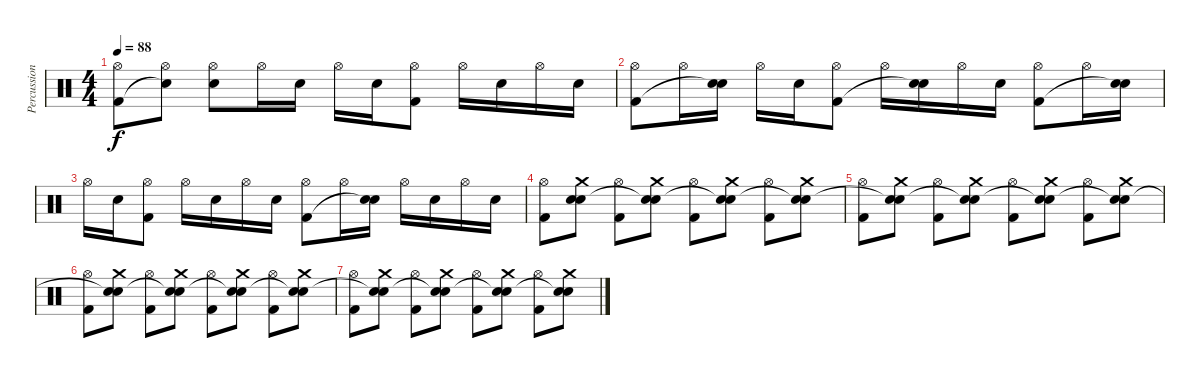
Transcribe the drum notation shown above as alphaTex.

\track ("Percussion" "Percussion") {instrument percussion}
\staff {score}
\articulation defaults
\ts (4 4)
\tempo 88
\clef neutral
\ks c
("Hi-Hat (open)" "Kick (hit) 2").8{dy f} ("Hi-Hat (open)" "Snare (hit)"{t}).8 ("Hi-Hat (open)" "Snare (hit) 2").8 "Hi-Hat (open)".16 "Snare (hit) 2".16 "Hi-Hat (open)".16 "Snare (hit) 2".16 ("Hi-Hat (open)" "Kick (hit) 2").8 "Hi-Hat (open)".16 "Snare (hit) 2".16 "Hi-Hat (open)".16 "Snare (hit) 2".16 |
("Hi-Hat (open)" "Kick (hit) 2").8 "Hi-Hat (open)".16 ("Snare (hit) 2" "Snare (hit)"{t}).16 "Hi-Hat (open)".16 "Snare (hit) 2".16 ("Hi-Hat (open)" "Kick (hit) 2").8 "Hi-Hat (open)".16 ("Snare (hit) 2" "Snare (hit)"{t}).16 "Hi-Hat (open)".16 "Snare (hit) 2".16 ("Hi-Hat (open)" "Kick (hit) 2").8 "Hi-Hat (open)".16 ("Snare (hit) 2" "Snare (hit)"{t}).16 |
"Hi-Hat (open)".16 "Snare (hit) 2".16 ("Hi-Hat (open)" "Kick (hit) 2").8 "Hi-Hat (open)".16 "Snare (hit) 2".16 "Hi-Hat (open)".16 "Snare (hit) 2".16 ("Hi-Hat (open)" "Kick (hit) 2").8 "Hi-Hat (open)".16 ("Snare (hit) 2" "Snare (hit)"{t}).16 "Hi-Hat (open)".16 "Snare (hit) 2".16 "Hi-Hat (open)".16 "Snare (hit) 2".16 |
("Hi-Hat (open)" "Kick (hit) 2").8 ("Crash medium (hit)" "Snare (hit) 2" "Snare (hit)").8 ("Hi-Hat (open)" "Kick (hit) 2").8 ("Crash medium (hit)" "Snare (hit) 2" "Snare (hit)"{t}).8 ("Hi-Hat (open)" "Kick (hit) 2").8 ("Crash medium (hit)" "Snare (hit) 2" "Snare (hit)"{t}).8 ("Hi-Hat (open)" "Kick (hit) 2").8 ("Crash medium (hit)" "Snare (hit) 2" "Snare (hit)"{t}).8 |
("Hi-Hat (open)" "Kick (hit) 2").8 ("Crash medium (hit)" "Snare (hit) 2" "Snare (hit)"{t}).8 ("Hi-Hat (open)" "Kick (hit) 2").8 ("Crash medium (hit)" "Snare (hit) 2" "Snare (hit)"{t}).8 ("Hi-Hat (open)" "Kick (hit) 2").8 ("Crash medium (hit)" "Snare (hit) 2" "Snare (hit)"{t}).8 ("Hi-Hat (open)" "Kick (hit) 2").8 ("Crash medium (hit)" "Snare (hit) 2" "Snare (hit)"{t}).8 |
("Hi-Hat (open)" "Kick (hit) 2").8 ("Crash medium (hit)" "Snare (hit) 2" "Snare (hit)"{t}).8 ("Hi-Hat (open)" "Kick (hit) 2").8 ("Crash medium (hit)" "Snare (hit) 2" "Snare (hit)"{t}).8 ("Hi-Hat (open)" "Kick (hit) 2").8 ("Crash medium (hit)" "Snare (hit) 2" "Snare (hit)"{t}).8 ("Hi-Hat (open)" "Kick (hit) 2").8 ("Crash medium (hit)" "Snare (hit) 2" "Snare (hit)"{t}).8 |
("Hi-Hat (open)" "Kick (hit) 2").8 ("Crash medium (hit)" "Snare (hit) 2" "Snare (hit)"{t}).8 ("Hi-Hat (open)" "Kick (hit) 2").8 ("Crash medium (hit)" "Snare (hit) 2" "Snare (hit)"{t}).8 ("Hi-Hat (open)" "Kick (hit) 2").8 ("Crash medium (hit)" "Snare (hit) 2" "Snare (hit)"{t}).8 ("Hi-Hat (open)" "Kick (hit) 2").8 ("Crash medium (hit)" "Snare (hit) 2" "Snare (hit)"{t}).8
